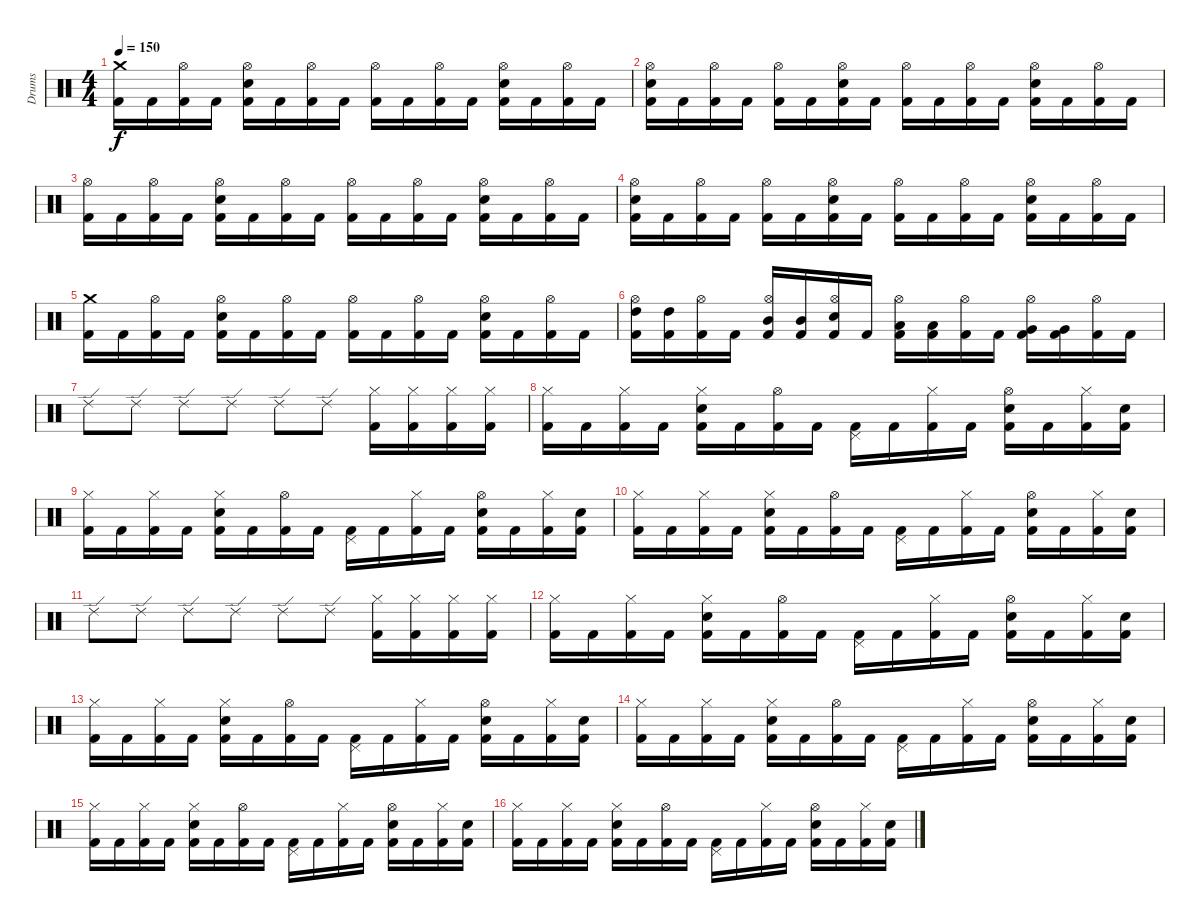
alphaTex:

\track ("Drums" "Drums") {instrument percussion}
\staff {score}
\articulation defaults
\ts (4 4)
\tempo 150
\clef neutral
\ks c
("Crash medium (hit)" "Kick (hit) 2").16{dy f} "Kick (hit) 2".16 ("Hi-Hat (open)" "Kick (hit) 2").16 "Kick (hit) 2".16 ("Hi-Hat (open)" "Kick (hit) 2" "Snare (hit) 2").16 "Kick (hit) 2".16 ("Hi-Hat (open)" "Kick (hit) 2").16 "Kick (hit) 2".16 ("Hi-Hat (open)" "Kick (hit) 2").16 "Kick (hit) 2".16 ("Hi-Hat (open)" "Kick (hit) 2").16 "Kick (hit) 2".16 ("Hi-Hat (open)" "Kick (hit) 2" "Snare (hit) 2").16 "Kick (hit) 2".16 ("Hi-Hat (open)" "Kick (hit) 2").16 "Kick (hit) 2".16 |
("Hi-Hat (open)" "Kick (hit) 2" "Snare (hit) 2").16 "Kick (hit) 2".16 ("Hi-Hat (open)" "Kick (hit) 2").16 "Kick (hit) 2".16 ("Hi-Hat (open)" "Kick (hit) 2").16 "Kick (hit) 2".16 ("Hi-Hat (open)" "Kick (hit) 2" "Snare (hit) 2").16 "Kick (hit) 2".16 ("Hi-Hat (open)" "Kick (hit) 2").16 "Kick (hit) 2".16 ("Hi-Hat (open)" "Kick (hit) 2").16 "Kick (hit) 2".16 ("Hi-Hat (open)" "Kick (hit) 2" "Snare (hit) 2").16 "Kick (hit) 2".16 ("Hi-Hat (open)" "Kick (hit) 2").16 "Kick (hit) 2".16 |
("Hi-Hat (open)" "Kick (hit) 2").16 "Kick (hit) 2".16 ("Hi-Hat (open)" "Kick (hit) 2").16 "Kick (hit) 2".16 ("Hi-Hat (open)" "Kick (hit) 2" "Snare (hit) 2").16 "Kick (hit) 2".16 ("Hi-Hat (open)" "Kick (hit) 2").16 "Kick (hit) 2".16 ("Hi-Hat (open)" "Kick (hit) 2").16 "Kick (hit) 2".16 ("Hi-Hat (open)" "Kick (hit) 2").16 "Kick (hit) 2".16 ("Hi-Hat (open)" "Kick (hit) 2" "Snare (hit) 2").16 "Kick (hit) 2".16 ("Hi-Hat (open)" "Kick (hit) 2").16 "Kick (hit) 2".16 |
("Hi-Hat (open)" "Kick (hit) 2" "Snare (hit) 2").16 "Kick (hit) 2".16 ("Hi-Hat (open)" "Kick (hit) 2").16 "Kick (hit) 2".16 ("Hi-Hat (open)" "Kick (hit) 2").16 "Kick (hit) 2".16 ("Hi-Hat (open)" "Kick (hit) 2" "Snare (hit) 2").16 "Kick (hit) 2".16 ("Hi-Hat (open)" "Kick (hit) 2").16 "Kick (hit) 2".16 ("Hi-Hat (open)" "Kick (hit) 2").16 "Kick (hit) 2".16 ("Hi-Hat (open)" "Kick (hit) 2" "Snare (hit) 2").16 "Kick (hit) 2".16 ("Hi-Hat (open)" "Kick (hit) 2").16 "Kick (hit) 2".16 |
("Crash medium (hit)" "Kick (hit) 2").16 "Kick (hit) 2".16 ("Hi-Hat (open)" "Kick (hit) 2").16 "Kick (hit) 2".16 ("Hi-Hat (open)" "Kick (hit) 2" "Snare (hit) 2").16 "Kick (hit) 2".16 ("Hi-Hat (open)" "Kick (hit) 2").16 "Kick (hit) 2".16 ("Hi-Hat (open)" "Kick (hit) 2").16 "Kick (hit) 2".16 ("Hi-Hat (open)" "Kick (hit) 2").16 "Kick (hit) 2".16 ("Hi-Hat (open)" "Kick (hit) 2" "Snare (hit) 2").16 "Kick (hit) 2".16 ("Hi-Hat (open)" "Kick (hit) 2").16 "Kick (hit) 2".16 |
("Hi-Hat (open)" "Kick (hit) 2" "High Tom (hit)").16 ("Kick (hit) 2" "High Tom (hit)").16 ("Hi-Hat (open)" "Kick (hit) 2").16 "Kick (hit) 2".16 ("Hi-Hat (open)" "Kick (hit) 2" "Mid Tom (hit)").16 ("Kick (hit) 2" "Mid Tom (hit)").16 ("Hi-Hat (open)" "Kick (hit) 2" "Snare (hit) 2").16 "Kick (hit) 2".16 ("Hi-Hat (open)" "Kick (hit) 2" "Low Tom (hit)").16 ("Kick (hit) 2" "Low Tom (hit)").16 ("Hi-Hat (open)" "Kick (hit) 2").16 "Kick (hit) 2".16 ("Hi-Hat (open)" "Kick (hit) 2" "Very Low Tom (hit)").16 ("Kick (hit) 2" "Very Low Tom (hit)").16 ("Hi-Hat (open)" "Kick (hit) 2").16 "Kick (hit) 2".16 |
"Ride (edge) 2".8 "Ride (edge) 2".8 "Ride (edge) 2".8 "Ride (edge) 2".8 "Ride (edge) 2".8 "Ride (edge) 2".8 ("Hi-Hat (closed)" "Kick (hit) 2").16 ("Hi-Hat (closed)" "Kick (hit) 2").16 ("Hi-Hat (closed)" "Kick (hit) 2").16 ("Hi-Hat (closed)" "Kick (hit) 2").16 |
("Hi-Hat (closed)" "Kick (hit) 2").16 "Kick (hit) 2".16 ("Hi-Hat (closed)" "Kick (hit) 2").16 "Kick (hit) 2".16 ("Hi-Hat (closed)" "Kick (hit) 2" "Snare (hit) 2").16 "Kick (hit) 2".16 ("Hi-Hat (open)" "Kick (hit) 2").16 "Kick (hit) 2".16 ("Pedal Hi-Hat (hit)" "Kick (hit) 2").16 "Kick (hit) 2".16 ("Hi-Hat (closed)" "Kick (hit) 2").16 "Kick (hit) 2".16 ("Hi-Hat (open)" "Kick (hit) 2" "Snare (hit) 2").16 "Kick (hit) 2".16 ("Hi-Hat (closed)" "Kick (hit) 2").16 ("Kick (hit) 2" "Snare (hit) 2").16 |
("Hi-Hat (closed)" "Kick (hit) 2").16 "Kick (hit) 2".16 ("Hi-Hat (closed)" "Kick (hit) 2").16 "Kick (hit) 2".16 ("Hi-Hat (closed)" "Kick (hit) 2" "Snare (hit) 2").16 "Kick (hit) 2".16 ("Hi-Hat (open)" "Kick (hit) 2").16 "Kick (hit) 2".16 ("Pedal Hi-Hat (hit)" "Kick (hit) 2").16 "Kick (hit) 2".16 ("Hi-Hat (closed)" "Kick (hit) 2").16 "Kick (hit) 2".16 ("Hi-Hat (open)" "Kick (hit) 2" "Snare (hit) 2").16 "Kick (hit) 2".16 ("Hi-Hat (closed)" "Kick (hit) 2").16 ("Kick (hit) 2" "Snare (hit) 2").16 |
("Hi-Hat (closed)" "Kick (hit) 2").16 "Kick (hit) 2".16 ("Hi-Hat (closed)" "Kick (hit) 2").16 "Kick (hit) 2".16 ("Hi-Hat (closed)" "Kick (hit) 2" "Snare (hit) 2").16 "Kick (hit) 2".16 ("Hi-Hat (open)" "Kick (hit) 2").16 "Kick (hit) 2".16 ("Pedal Hi-Hat (hit)" "Kick (hit) 2").16 "Kick (hit) 2".16 ("Hi-Hat (closed)" "Kick (hit) 2").16 "Kick (hit) 2".16 ("Hi-Hat (open)" "Kick (hit) 2" "Snare (hit) 2").16 "Kick (hit) 2".16 ("Hi-Hat (closed)" "Kick (hit) 2").16 ("Kick (hit) 2" "Snare (hit) 2").16 |
"Ride (edge) 2".8 "Ride (edge) 2".8 "Ride (edge) 2".8 "Ride (edge) 2".8 "Ride (edge) 2".8 "Ride (edge) 2".8 ("Hi-Hat (closed)" "Kick (hit) 2").16 ("Hi-Hat (closed)" "Kick (hit) 2").16 ("Hi-Hat (closed)" "Kick (hit) 2").16 ("Hi-Hat (closed)" "Kick (hit) 2").16 |
("Hi-Hat (closed)" "Kick (hit) 2").16 "Kick (hit) 2".16 ("Hi-Hat (closed)" "Kick (hit) 2").16 "Kick (hit) 2".16 ("Hi-Hat (closed)" "Kick (hit) 2" "Snare (hit) 2").16 "Kick (hit) 2".16 ("Hi-Hat (open)" "Kick (hit) 2").16 "Kick (hit) 2".16 ("Pedal Hi-Hat (hit)" "Kick (hit) 2").16 "Kick (hit) 2".16 ("Hi-Hat (closed)" "Kick (hit) 2").16 "Kick (hit) 2".16 ("Hi-Hat (open)" "Kick (hit) 2" "Snare (hit) 2").16 "Kick (hit) 2".16 ("Hi-Hat (closed)" "Kick (hit) 2").16 ("Kick (hit) 2" "Snare (hit) 2").16 |
("Hi-Hat (closed)" "Kick (hit) 2").16 "Kick (hit) 2".16 ("Hi-Hat (closed)" "Kick (hit) 2").16 "Kick (hit) 2".16 ("Hi-Hat (closed)" "Kick (hit) 2" "Snare (hit) 2").16 "Kick (hit) 2".16 ("Hi-Hat (open)" "Kick (hit) 2").16 "Kick (hit) 2".16 ("Pedal Hi-Hat (hit)" "Kick (hit) 2").16 "Kick (hit) 2".16 ("Hi-Hat (closed)" "Kick (hit) 2").16 "Kick (hit) 2".16 ("Hi-Hat (open)" "Kick (hit) 2" "Snare (hit) 2").16 "Kick (hit) 2".16 ("Hi-Hat (closed)" "Kick (hit) 2").16 ("Kick (hit) 2" "Snare (hit) 2").16 |
("Hi-Hat (closed)" "Kick (hit) 2").16 "Kick (hit) 2".16 ("Hi-Hat (closed)" "Kick (hit) 2").16 "Kick (hit) 2".16 ("Hi-Hat (closed)" "Kick (hit) 2" "Snare (hit) 2").16 "Kick (hit) 2".16 ("Hi-Hat (open)" "Kick (hit) 2").16 "Kick (hit) 2".16 ("Pedal Hi-Hat (hit)" "Kick (hit) 2").16 "Kick (hit) 2".16 ("Hi-Hat (closed)" "Kick (hit) 2").16 "Kick (hit) 2".16 ("Hi-Hat (open)" "Kick (hit) 2" "Snare (hit) 2").16 "Kick (hit) 2".16 ("Hi-Hat (closed)" "Kick (hit) 2").16 ("Kick (hit) 2" "Snare (hit) 2").16 |
("Hi-Hat (closed)" "Kick (hit) 2").16 "Kick (hit) 2".16 ("Hi-Hat (closed)" "Kick (hit) 2").16 "Kick (hit) 2".16 ("Hi-Hat (closed)" "Kick (hit) 2" "Snare (hit) 2").16 "Kick (hit) 2".16 ("Hi-Hat (open)" "Kick (hit) 2").16 "Kick (hit) 2".16 ("Pedal Hi-Hat (hit)" "Kick (hit) 2").16 "Kick (hit) 2".16 ("Hi-Hat (closed)" "Kick (hit) 2").16 "Kick (hit) 2".16 ("Hi-Hat (open)" "Kick (hit) 2" "Snare (hit) 2").16 "Kick (hit) 2".16 ("Hi-Hat (closed)" "Kick (hit) 2").16 ("Kick (hit) 2" "Snare (hit) 2").16 |
("Hi-Hat (closed)" "Kick (hit) 2").16 "Kick (hit) 2".16 ("Hi-Hat (closed)" "Kick (hit) 2").16 "Kick (hit) 2".16 ("Hi-Hat (closed)" "Kick (hit) 2" "Snare (hit) 2").16 "Kick (hit) 2".16 ("Hi-Hat (open)" "Kick (hit) 2").16 "Kick (hit) 2".16 ("Pedal Hi-Hat (hit)" "Kick (hit) 2").16 "Kick (hit) 2".16 ("Hi-Hat (closed)" "Kick (hit) 2").16 "Kick (hit) 2".16 ("Hi-Hat (open)" "Kick (hit) 2" "Snare (hit) 2").16 "Kick (hit) 2".16 ("Hi-Hat (closed)" "Kick (hit) 2").16 ("Kick (hit) 2" "Snare (hit) 2").16
